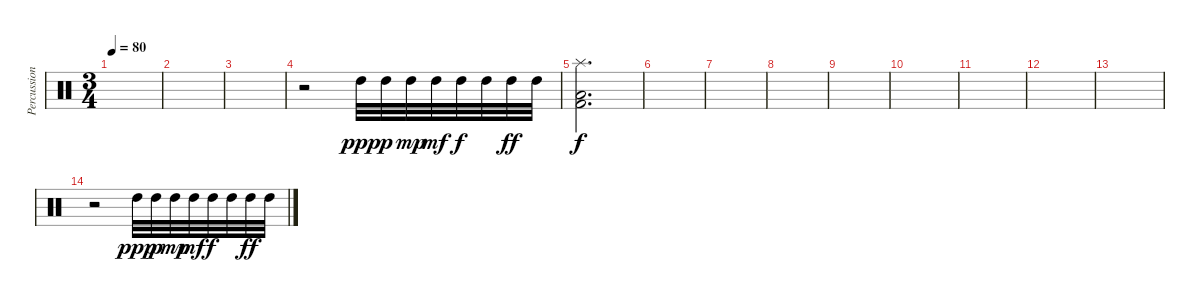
\track ("Percussion" "Percussion") {instrument percussion}
\staff {score}
\articulation defaults
\ts (3 4)
\tempo 80
\clef neutral
\ks c
|
|
|
r.2 "High Tom (hit)".32{dy ppp} "High Tom (hit)".32{dy p} "High Tom (hit)".32{dy mp} "High Tom (hit)".32{dy mf} "High Tom (hit)".32{dy f} "High Tom (hit)".32 "High Tom (hit)".32{dy ff} "High Tom (hit)".32 |
("Splash (hit)" "Kick (hit) 2" "Low Floor Tom (hit)").2{d dy f} |
|
|
|
|
|
|
|
|
r.2 "High Tom (hit)".32{dy ppp} "High Tom (hit)".32{dy p} "High Tom (hit)".32{dy mp} "High Tom (hit)".32{dy mf} "High Tom (hit)".32{dy f} "High Tom (hit)".32 "High Tom (hit)".32{dy ff} "High Tom (hit)".32
